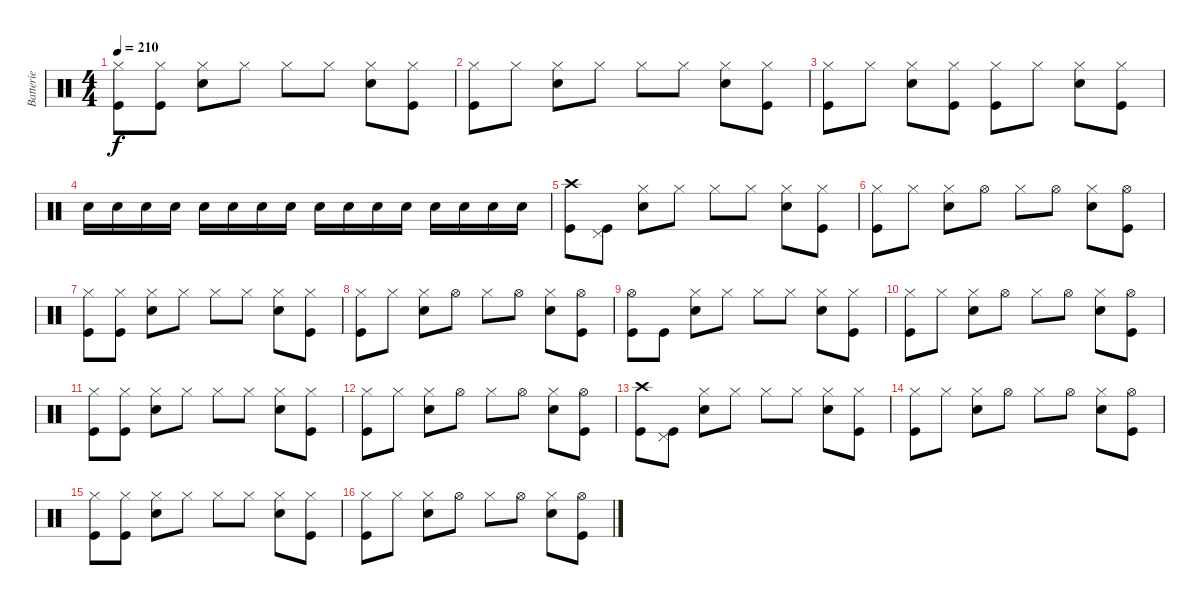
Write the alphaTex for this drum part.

\track ("Batterie" "Batterie") {instrument percussion}
\staff {score}
\articulation defaults
\ts (4 4)
\tempo 210
\clef neutral
\ks c
("Hi-Hat (closed)" "Kick (hit)").8{dy f} ("Hi-Hat (closed)" "Kick (hit)").8 ("Hi-Hat (closed)" "Snare (hit) 2").8 "Hi-Hat (closed)".8 "Hi-Hat (closed)".8 "Hi-Hat (closed)".8 ("Hi-Hat (closed)" "Snare (hit) 2").8 ("Hi-Hat (closed)" "Kick (hit)").8 |
("Hi-Hat (closed)" "Kick (hit)").8 "Hi-Hat (closed)".8 ("Hi-Hat (closed)" "Snare (hit) 2").8 "Hi-Hat (closed)".8 "Hi-Hat (closed)".8 "Hi-Hat (closed)".8 ("Hi-Hat (closed)" "Snare (hit) 2").8 ("Hi-Hat (closed)" "Kick (hit)").8 |
("Hi-Hat (closed)" "Kick (hit)").8 "Hi-Hat (closed)".8 ("Hi-Hat (closed)" "Snare (hit) 2").8 ("Hi-Hat (closed)" "Kick (hit)").8 ("Hi-Hat (closed)" "Kick (hit)").8 "Hi-Hat (closed)".8 ("Hi-Hat (closed)" "Snare (hit) 2").8 ("Hi-Hat (closed)" "Kick (hit)").8 |
"Snare (hit) 2".16 "Snare (hit) 2".16 "Snare (hit) 2".16 "Snare (hit) 2".16 "Snare (hit) 2".16 "Snare (hit) 2".16 "Snare (hit) 2".16 "Snare (hit) 2".16 "Snare (hit) 2".16 "Snare (hit) 2".16 "Snare (hit) 2".16 "Snare (hit) 2".16 "Snare (hit) 2".16 "Snare (hit) 2".16 "Snare (hit) 2".16 "Snare (hit) 2".16 |
("Crash high (hit)" "Kick (hit)").8 ("Pedal Hi-Hat (hit)" "Kick (hit)").8 ("Hi-Hat (closed)" "Snare (hit) 2").8 "Hi-Hat (closed)".8 "Hi-Hat (closed)".8 "Hi-Hat (closed)".8 ("Hi-Hat (closed)" "Snare (hit) 2").8 ("Hi-Hat (closed)" "Kick (hit)").8 |
("Hi-Hat (closed)" "Kick (hit)").8 "Hi-Hat (closed)".8 ("Hi-Hat (closed)" "Snare (hit) 2").8 "Hi-Hat (open)".8 "Hi-Hat (closed)".8 "Hi-Hat (open)".8 ("Hi-Hat (closed)" "Snare (hit) 2").8 ("Hi-Hat (open)" "Kick (hit)").8 |
("Hi-Hat (closed)" "Kick (hit)").8 ("Hi-Hat (closed)" "Kick (hit)").8 ("Hi-Hat (closed)" "Snare (hit) 2").8 "Hi-Hat (closed)".8 "Hi-Hat (closed)".8 "Hi-Hat (closed)".8 ("Hi-Hat (closed)" "Snare (hit) 2").8 ("Hi-Hat (closed)" "Kick (hit)").8 |
("Hi-Hat (closed)" "Kick (hit)").8 "Hi-Hat (closed)".8 ("Hi-Hat (closed)" "Snare (hit) 2").8 "Hi-Hat (open)".8 "Hi-Hat (closed)".8 "Hi-Hat (open)".8 ("Hi-Hat (closed)" "Snare (hit) 2").8 ("Hi-Hat (open)" "Kick (hit)").8 |
("Hi-Hat (open)" "Kick (hit)").8 "Kick (hit)".8 ("Hi-Hat (closed)" "Snare (hit) 2").8 "Hi-Hat (closed)".8 "Hi-Hat (closed)".8 "Hi-Hat (closed)".8 ("Hi-Hat (closed)" "Snare (hit) 2").8 ("Hi-Hat (closed)" "Kick (hit)").8 |
("Hi-Hat (closed)" "Kick (hit)").8 "Hi-Hat (closed)".8 ("Hi-Hat (closed)" "Snare (hit) 2").8 "Hi-Hat (open)".8 "Hi-Hat (closed)".8 "Hi-Hat (open)".8 ("Hi-Hat (closed)" "Snare (hit) 2").8 ("Hi-Hat (open)" "Kick (hit)").8 |
("Hi-Hat (closed)" "Kick (hit)").8 ("Hi-Hat (closed)" "Kick (hit)").8 ("Hi-Hat (closed)" "Snare (hit) 2").8 "Hi-Hat (closed)".8 "Hi-Hat (closed)".8 "Hi-Hat (closed)".8 ("Hi-Hat (closed)" "Snare (hit) 2").8 ("Hi-Hat (closed)" "Kick (hit)").8 |
("Hi-Hat (closed)" "Kick (hit)").8 "Hi-Hat (closed)".8 ("Hi-Hat (closed)" "Snare (hit) 2").8 "Hi-Hat (open)".8 "Hi-Hat (closed)".8 "Hi-Hat (open)".8 ("Hi-Hat (closed)" "Snare (hit) 2").8 ("Hi-Hat (open)" "Kick (hit)").8 |
("Crash high (hit)" "Kick (hit)").8 ("Pedal Hi-Hat (hit)" "Kick (hit)").8 ("Hi-Hat (closed)" "Snare (hit) 2").8 "Hi-Hat (closed)".8 "Hi-Hat (closed)".8 "Hi-Hat (closed)".8 ("Hi-Hat (closed)" "Snare (hit) 2").8 ("Hi-Hat (closed)" "Kick (hit)").8 |
("Hi-Hat (closed)" "Kick (hit)").8 "Hi-Hat (closed)".8 ("Hi-Hat (closed)" "Snare (hit) 2").8 "Hi-Hat (open)".8 "Hi-Hat (closed)".8 "Hi-Hat (open)".8 ("Hi-Hat (closed)" "Snare (hit) 2").8 ("Hi-Hat (open)" "Kick (hit)").8 |
("Hi-Hat (closed)" "Kick (hit)").8 ("Hi-Hat (closed)" "Kick (hit)").8 ("Hi-Hat (closed)" "Snare (hit) 2").8 "Hi-Hat (closed)".8 "Hi-Hat (closed)".8 "Hi-Hat (closed)".8 ("Hi-Hat (closed)" "Snare (hit) 2").8 ("Hi-Hat (closed)" "Kick (hit)").8 |
("Hi-Hat (closed)" "Kick (hit)").8 "Hi-Hat (closed)".8 ("Hi-Hat (closed)" "Snare (hit) 2").8 "Hi-Hat (open)".8 "Hi-Hat (closed)".8 "Hi-Hat (open)".8 ("Hi-Hat (closed)" "Snare (hit) 2").8 ("Hi-Hat (open)" "Kick (hit)").8
